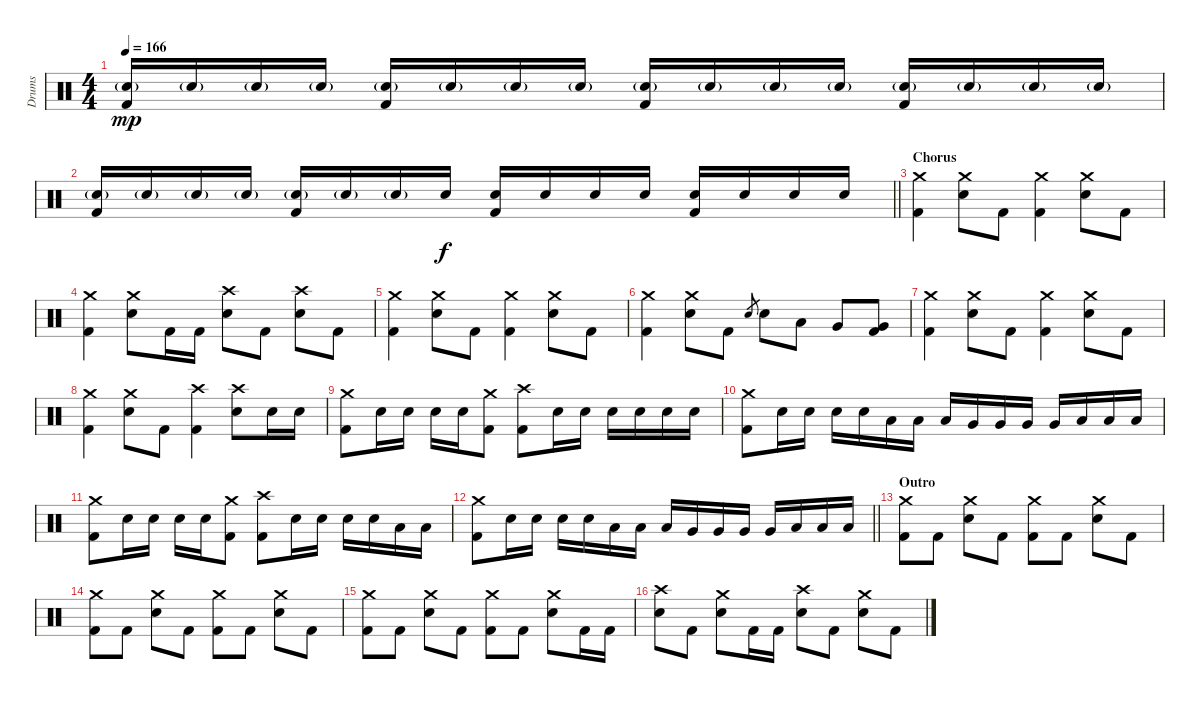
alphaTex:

\track ("Drums" "Drums") {instrument percussion}
\staff {score}
\articulation defaults
\ts (4 4)
\tempo 166
\clef neutral
\ks c
("Electric Snare (hit)"{g} "Kick (hit) 2").16{dy mp} "Electric Snare (hit)"{g}.16 "Electric Snare (hit)"{g}.16 "Electric Snare (hit)"{g}.16 ("Electric Snare (hit)"{g} "Kick (hit) 2").16 "Electric Snare (hit)"{g}.16 "Electric Snare (hit)"{g}.16 "Electric Snare (hit)"{g}.16 ("Electric Snare (hit)"{g} "Kick (hit) 2").16 "Electric Snare (hit)"{g}.16 "Electric Snare (hit)"{g}.16 "Electric Snare (hit)"{g}.16 ("Electric Snare (hit)"{g} "Kick (hit) 2").16 "Electric Snare (hit)"{g}.16 "Electric Snare (hit)"{g}.16 "Electric Snare (hit)"{g}.16 |
\barLineRight lightlight
("Electric Snare (hit)"{g} "Kick (hit) 2").16 "Electric Snare (hit)"{g}.16 "Electric Snare (hit)"{g}.16 "Electric Snare (hit)"{g}.16 ("Electric Snare (hit)"{g} "Kick (hit) 2").16 "Electric Snare (hit)"{g}.16 "Electric Snare (hit)"{g}.16 "Electric Snare (hit)".16{dy f} ("Electric Snare (hit)" "Kick (hit) 2").16 "Electric Snare (hit)".16 "Electric Snare (hit)".16 "Electric Snare (hit)".16 ("Electric Snare (hit)" "Kick (hit) 2").16 "Electric Snare (hit)".16 "Electric Snare (hit)".16 "Electric Snare (hit)".16 |
\section ("" "Chorus")
("Crash medium (hit)" "Kick (hit) 2").4 ("Crash medium (hit)" "Electric Snare (hit)").8 "Kick (hit) 2".8 ("Crash medium (hit)" "Kick (hit) 2").4 ("Crash medium (hit)" "Electric Snare (hit)").8 "Kick (hit) 2".8 |
("Crash medium (hit)" "Kick (hit) 2").4 ("Crash medium (hit)" "Electric Snare (hit)").8 "Kick (hit) 2".16 "Kick (hit) 2".16 ("Crash high (hit)" "Electric Snare (hit)").8 "Kick (hit) 2".8 ("Crash high (hit)" "Electric Snare (hit)").8 "Kick (hit) 2".8 |
("Crash medium (hit)" "Kick (hit) 2").4 ("Crash medium (hit)" "Electric Snare (hit)").8 "Kick (hit) 2".8 ("Crash medium (hit)" "Kick (hit) 2").4 ("Crash medium (hit)" "Electric Snare (hit)").8 "Kick (hit) 2".8 |
("Crash medium (hit)" "Kick (hit) 2").4 ("Crash medium (hit)" "Electric Snare (hit)").8 "Kick (hit) 2".8 "Electric Snare (hit)".8{gr} "Electric Snare (hit)".8 "Low Tom (hit)".8 "Very Low Tom (hit)".8 ("Very Low Tom (hit)" "Kick (hit) 2").8 |
("Crash medium (hit)" "Kick (hit) 2").4 ("Crash medium (hit)" "Electric Snare (hit)").8 "Kick (hit) 2".8 ("Crash medium (hit)" "Kick (hit) 2").4 ("Crash medium (hit)" "Electric Snare (hit)").8 "Kick (hit) 2".8 |
("Crash medium (hit)" "Kick (hit) 2").4 ("Crash medium (hit)" "Electric Snare (hit)").8 "Kick (hit) 2".8 ("Crash high (hit)" "Kick (hit) 2").4 ("Crash high (hit)" "Electric Snare (hit)").8 "Electric Snare (hit)".16 "Electric Snare (hit)".16 |
("Crash medium (hit)" "Kick (hit) 2").8 "Electric Snare (hit)".16 "Electric Snare (hit)".16 "Electric Snare (hit)".16 "Electric Snare (hit)".16 ("Crash medium (hit)" "Kick (hit) 2").8 ("Crash high (hit)" "Kick (hit) 2").8 "Electric Snare (hit)".16 "Electric Snare (hit)".16 "Electric Snare (hit)".16 "Electric Snare (hit)".16 "Electric Snare (hit)".16 "Electric Snare (hit)".16 |
("Crash medium (hit)" "Kick (hit) 2").8 "Electric Snare (hit)".16 "Electric Snare (hit)".16 "Electric Snare (hit)".16 "Electric Snare (hit)".16 "Low Tom (hit)".16 "Low Tom (hit)".16 "Low Tom (hit)".16 "Very Low Tom (hit)".16 "Very Low Tom (hit)".16 "Very Low Tom (hit)".16 "Very Low Tom (hit)".16 "Low Floor Tom (hit)".16 "Low Floor Tom (hit)".16 "Low Floor Tom (hit)".16 |
("Crash medium (hit)" "Kick (hit) 2").8 "Electric Snare (hit)".16 "Electric Snare (hit)".16 "Electric Snare (hit)".16 "Electric Snare (hit)".16 ("Crash medium (hit)" "Kick (hit) 2").8 ("Crash high (hit)" "Kick (hit) 2").8 "Electric Snare (hit)".16 "Electric Snare (hit)".16 "Electric Snare (hit)".16 "Electric Snare (hit)".16 "Low Tom (hit)".16 "Low Tom (hit)".16 |
\barLineRight lightlight
("Crash medium (hit)" "Kick (hit) 2").8 "Electric Snare (hit)".16 "Electric Snare (hit)".16 "Electric Snare (hit)".16 "Electric Snare (hit)".16 "Low Tom (hit)".16 "Low Tom (hit)".16 "Low Tom (hit)".16 "Very Low Tom (hit)".16 "Very Low Tom (hit)".16 "Very Low Tom (hit)".16 "Very Low Tom (hit)".16 "Low Floor Tom (hit)".16 "Low Floor Tom (hit)".16 "Low Floor Tom (hit)".16 |
\section ("" "Outro")
("Crash medium (hit)" "Kick (hit) 2").8 "Kick (hit) 2".8 ("Crash medium (hit)" "Electric Snare (hit)").8 "Kick (hit) 2".8 ("Crash medium (hit)" "Kick (hit) 2").8 "Kick (hit) 2".8 ("Crash medium (hit)" "Electric Snare (hit)").8 "Kick (hit) 2".8 |
("Crash medium (hit)" "Kick (hit) 2").8 "Kick (hit) 2".8 ("Crash medium (hit)" "Electric Snare (hit)").8 "Kick (hit) 2".8 ("Crash medium (hit)" "Kick (hit) 2").8 "Kick (hit) 2".8 ("Crash medium (hit)" "Electric Snare (hit)").8 "Kick (hit) 2".8 |
("Crash medium (hit)" "Kick (hit) 2").8 "Kick (hit) 2".8 ("Crash medium (hit)" "Electric Snare (hit)").8 "Kick (hit) 2".8 ("Crash medium (hit)" "Kick (hit) 2").8 "Kick (hit) 2".8 ("Crash medium (hit)" "Electric Snare (hit)").8 "Kick (hit) 2".16 "Kick (hit) 2".16 |
("Crash high (hit)" "Electric Snare (hit)").8 "Kick (hit) 2".8 ("Crash medium (hit)" "Electric Snare (hit)").8 "Kick (hit) 2".16 "Kick (hit) 2".16 ("Crash high (hit)" "Electric Snare (hit)").8 "Kick (hit) 2".8 ("Crash medium (hit)" "Electric Snare (hit)").8 "Kick (hit) 2".8
